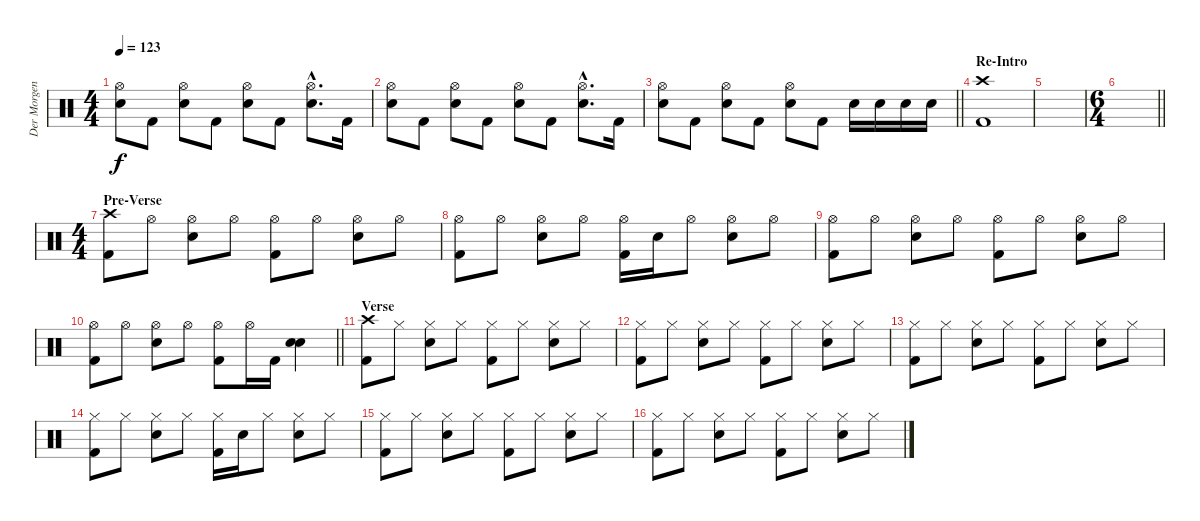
\track ("Der Morgenstern" "Der Morgen") {instrument percussion}
\staff {score}
\articulation defaults
\ts (4 4)
\tempo 123
\clef neutral
\ks c
("Hi-Hat (open)" "Electric Snare (hit)").8{dy f} "Kick (hit) 2".8 ("Hi-Hat (open)" "Electric Snare (hit)").8 "Kick (hit) 2".8 ("Hi-Hat (open)" "Electric Snare (hit)").8 "Kick (hit) 2".8 ("Hi-Hat (open)"{hac} "Electric Snare (hit)"{hac}).8{d} "Kick (hit) 2".16 |
("Hi-Hat (open)" "Electric Snare (hit)").8 "Kick (hit) 2".8 ("Hi-Hat (open)" "Electric Snare (hit)").8 "Kick (hit) 2".8 ("Hi-Hat (open)" "Electric Snare (hit)").8 "Kick (hit) 2".8 ("Hi-Hat (open)"{hac} "Electric Snare (hit)"{hac}).8{d} "Kick (hit) 2".16 |
\barLineRight lightlight
("Hi-Hat (open)" "Electric Snare (hit)").8 "Kick (hit) 2".8 ("Hi-Hat (open)" "Electric Snare (hit)").8 "Kick (hit) 2".8 ("Hi-Hat (open)" "Electric Snare (hit)").8 "Kick (hit) 2".8 "Electric Snare (hit)".16 "Electric Snare (hit)".16 "Electric Snare (hit)".16 "Electric Snare (hit)".16 |
\section ("" "Re-Intro")
("Crash high (hit)" "Kick (hit) 2").1 |
|
\ts (6 4)
\barLineRight lightlight
|
\ts (4 4)
\section ("" "Pre-Verse")
("Crash high (hit)" "Kick (hit) 2").8 "Hi-Hat (open)".8 ("Hi-Hat (open)" "Electric Snare (hit)").8 "Hi-Hat (open)".8 ("Hi-Hat (open)" "Kick (hit) 2").8 "Hi-Hat (open)".8 ("Hi-Hat (open)" "Electric Snare (hit)").8 "Hi-Hat (open)".8 |
("Hi-Hat (open)" "Kick (hit) 2").8 "Hi-Hat (open)".8 ("Hi-Hat (open)" "Electric Snare (hit)").8 "Hi-Hat (open)".8 ("Hi-Hat (open)" "Kick (hit) 2").16 "Electric Snare (hit)".16 "Hi-Hat (open)".8 ("Hi-Hat (open)" "Electric Snare (hit)").8 "Hi-Hat (open)".8 |
("Hi-Hat (open)" "Kick (hit) 2").8 "Hi-Hat (open)".8 ("Hi-Hat (open)" "Electric Snare (hit)").8 "Hi-Hat (open)".8 ("Hi-Hat (open)" "Kick (hit) 2").8 "Hi-Hat (open)".8 ("Hi-Hat (open)" "Electric Snare (hit)").8 "Hi-Hat (open)".8 |
\barLineRight lightlight
("Hi-Hat (open)" "Kick (hit) 2").8 "Hi-Hat (open)".8 ("Hi-Hat (open)" "Electric Snare (hit)").8 "Hi-Hat (open)".8 ("Hi-Hat (open)" "Kick (hit) 2").8 "Hi-Hat (open)".16 "Kick (hit) 2".16 ("Electric Snare (hit)" "Electric Snare (hit)").4 |
\section ("" "Verse")
("Crash high (hit)" "Kick (hit) 2").8 "Hi-Hat (closed)".8 ("Hi-Hat (closed)" "Electric Snare (hit)").8 "Hi-Hat (closed)".8 ("Hi-Hat (closed)" "Kick (hit) 2").8 "Hi-Hat (closed)".8 ("Hi-Hat (closed)" "Electric Snare (hit)").8 "Hi-Hat (closed)".8 |
("Hi-Hat (closed)" "Kick (hit) 2").8 "Hi-Hat (closed)".8 ("Hi-Hat (closed)" "Electric Snare (hit)").8 "Hi-Hat (closed)".8 ("Hi-Hat (closed)" "Kick (hit) 2").8 "Hi-Hat (closed)".8 ("Hi-Hat (closed)" "Electric Snare (hit)").8 "Hi-Hat (closed)".8 |
("Hi-Hat (closed)" "Kick (hit) 2").8 "Hi-Hat (closed)".8 ("Hi-Hat (closed)" "Electric Snare (hit)").8 "Hi-Hat (closed)".8 ("Hi-Hat (closed)" "Kick (hit) 2").8 "Hi-Hat (closed)".8 ("Hi-Hat (closed)" "Electric Snare (hit)").8 "Hi-Hat (closed)".8 |
("Hi-Hat (closed)" "Kick (hit) 2").8 "Hi-Hat (closed)".8 ("Hi-Hat (closed)" "Electric Snare (hit)").8 "Hi-Hat (closed)".8 ("Hi-Hat (closed)" "Kick (hit) 2").16 "Electric Snare (hit)".16 "Hi-Hat (closed)".8 ("Hi-Hat (closed)" "Electric Snare (hit)").8 "Hi-Hat (closed)".8 |
("Hi-Hat (closed)" "Kick (hit) 2").8 "Hi-Hat (closed)".8 ("Hi-Hat (closed)" "Electric Snare (hit)").8 "Hi-Hat (closed)".8 ("Hi-Hat (closed)" "Kick (hit) 2").8 "Hi-Hat (closed)".8 ("Hi-Hat (closed)" "Electric Snare (hit)").8 "Hi-Hat (closed)".8 |
("Hi-Hat (closed)" "Kick (hit) 2").8 "Hi-Hat (closed)".8 ("Hi-Hat (closed)" "Electric Snare (hit)").8 "Hi-Hat (closed)".8 ("Hi-Hat (closed)" "Kick (hit) 2").8 "Hi-Hat (closed)".8 ("Hi-Hat (closed)" "Electric Snare (hit)").8 "Hi-Hat (closed)".8
